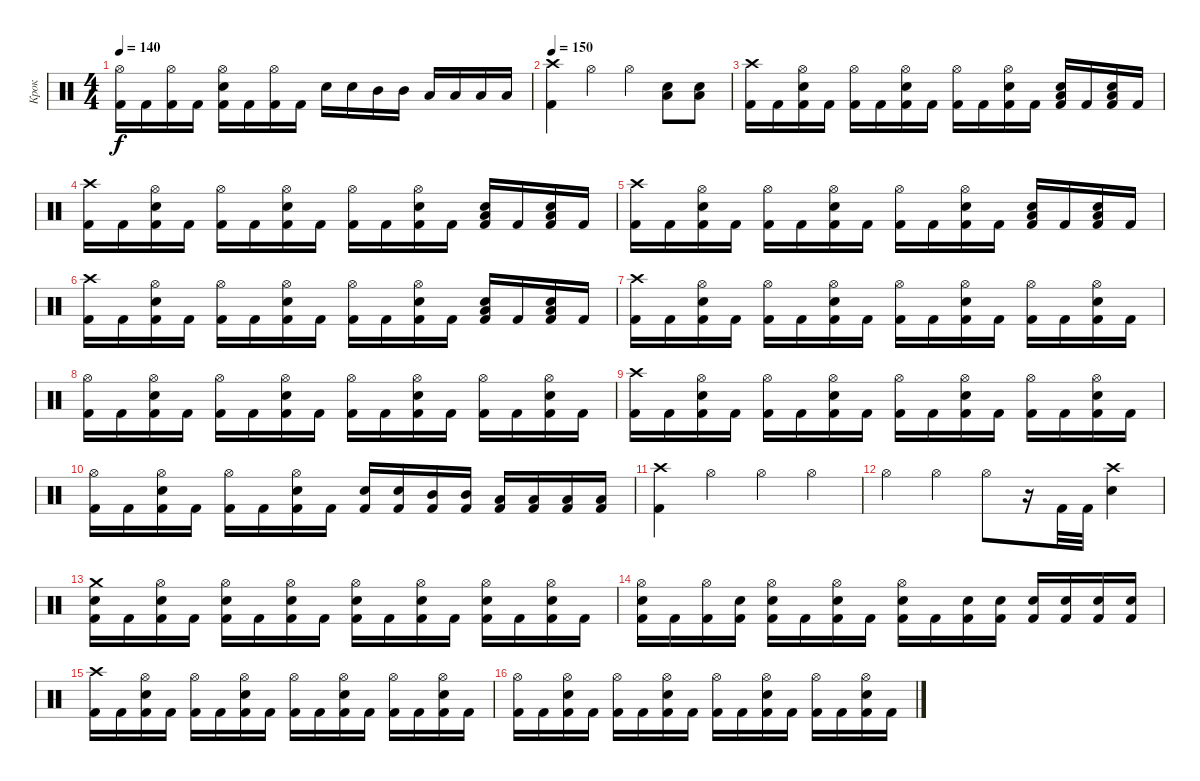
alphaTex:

\track ("Крок" "Крок") {instrument percussion}
\staff {score}
\articulation defaults
\ts (4 4)
\tempo 140
\clef neutral
\ks c
("Hi-Hat (open)" "Kick (hit) 2").16{dy f} "Kick (hit) 2".16 ("Hi-Hat (open)" "Kick (hit) 2").16 "Kick (hit) 2".16 ("Hi-Hat (open)" "Electric Snare (hit)" "Kick (hit) 2").16 "Kick (hit) 2".16 ("Hi-Hat (open)" "Kick (hit) 2").16 "Kick (hit) 2".16 "Electric Snare (hit)".16 "Electric Snare (hit)".16 "Mid Tom (hit)".16 "Mid Tom (hit)".16 "Low Tom (hit)".16 "Low Tom (hit)".16 "Low Tom (hit)".16 "Low Tom (hit)".16 |
\tempo 150
("Crash high (hit)" "Kick (hit) 2").4 "Hi-Hat (open)".4 "Hi-Hat (open)".4 ("Low Floor Tom (hit)" "Electric Snare (hit)").8 ("Low Floor Tom (hit)" "Electric Snare (hit)").8 |
("Crash high (hit)" "Kick (hit) 2").16 "Kick (hit) 2".16 ("Hi-Hat (open)" "Electric Snare (hit)" "Kick (hit) 2").16 "Kick (hit) 2".16 ("Hi-Hat (open)" "Kick (hit) 2").16 "Kick (hit) 2".16 ("Hi-Hat (open)" "Electric Snare (hit)" "Kick (hit) 2").16 "Kick (hit) 2".16 ("Hi-Hat (open)" "Kick (hit) 2").16 "Kick (hit) 2".16 ("Hi-Hat (open)" "Electric Snare (hit)" "Kick (hit) 2").16 "Kick (hit) 2".16 ("Electric Snare (hit)" "Low Floor Tom (hit)" "Kick (hit) 2").16 "Kick (hit) 2".16 ("Electric Snare (hit)" "Low Floor Tom (hit)" "Kick (hit) 2").16 "Kick (hit) 2".16 |
("Crash high (hit)" "Kick (hit) 2").16 "Kick (hit) 2".16 ("Hi-Hat (open)" "Electric Snare (hit)" "Kick (hit) 2").16 "Kick (hit) 2".16 ("Hi-Hat (open)" "Kick (hit) 2").16 "Kick (hit) 2".16 ("Hi-Hat (open)" "Electric Snare (hit)" "Kick (hit) 2").16 "Kick (hit) 2".16 ("Hi-Hat (open)" "Kick (hit) 2").16 "Kick (hit) 2".16 ("Hi-Hat (open)" "Electric Snare (hit)" "Kick (hit) 2").16 "Kick (hit) 2".16 ("Electric Snare (hit)" "Low Floor Tom (hit)" "Kick (hit) 2").16 "Kick (hit) 2".16 ("Electric Snare (hit)" "Low Floor Tom (hit)" "Kick (hit) 2").16 "Kick (hit) 2".16 |
("Crash high (hit)" "Kick (hit) 2").16 "Kick (hit) 2".16 ("Hi-Hat (open)" "Electric Snare (hit)" "Kick (hit) 2").16 "Kick (hit) 2".16 ("Hi-Hat (open)" "Kick (hit) 2").16 "Kick (hit) 2".16 ("Hi-Hat (open)" "Electric Snare (hit)" "Kick (hit) 2").16 "Kick (hit) 2".16 ("Hi-Hat (open)" "Kick (hit) 2").16 "Kick (hit) 2".16 ("Hi-Hat (open)" "Electric Snare (hit)" "Kick (hit) 2").16 "Kick (hit) 2".16 ("Electric Snare (hit)" "Low Floor Tom (hit)" "Kick (hit) 2").16 "Kick (hit) 2".16 ("Electric Snare (hit)" "Low Floor Tom (hit)" "Kick (hit) 2").16 "Kick (hit) 2".16 |
("Crash high (hit)" "Kick (hit) 2").16 "Kick (hit) 2".16 ("Hi-Hat (open)" "Electric Snare (hit)" "Kick (hit) 2").16 "Kick (hit) 2".16 ("Hi-Hat (open)" "Kick (hit) 2").16 "Kick (hit) 2".16 ("Hi-Hat (open)" "Electric Snare (hit)" "Kick (hit) 2").16 "Kick (hit) 2".16 ("Hi-Hat (open)" "Kick (hit) 2").16 "Kick (hit) 2".16 ("Hi-Hat (open)" "Electric Snare (hit)" "Kick (hit) 2").16 "Kick (hit) 2".16 ("Electric Snare (hit)" "Low Floor Tom (hit)" "Kick (hit) 2").16 "Kick (hit) 2".16 ("Electric Snare (hit)" "Low Floor Tom (hit)" "Kick (hit) 2").16 "Kick (hit) 2".16 |
("Crash high (hit)" "Kick (hit) 2").16 "Kick (hit) 2".16 ("Hi-Hat (open)" "Electric Snare (hit)" "Kick (hit) 2").16 "Kick (hit) 2".16 ("Hi-Hat (open)" "Kick (hit) 2").16 "Kick (hit) 2".16 ("Hi-Hat (open)" "Electric Snare (hit)" "Kick (hit) 2").16 "Kick (hit) 2".16 ("Hi-Hat (open)" "Kick (hit) 2").16 "Kick (hit) 2".16 ("Hi-Hat (open)" "Electric Snare (hit)" "Kick (hit) 2").16 "Kick (hit) 2".16 ("Hi-Hat (open)" "Kick (hit) 2").16 "Kick (hit) 2".16 ("Hi-Hat (open)" "Electric Snare (hit)" "Kick (hit) 2").16 "Kick (hit) 2".16 |
("Hi-Hat (open)" "Kick (hit) 2").16 "Kick (hit) 2".16 ("Hi-Hat (open)" "Electric Snare (hit)" "Kick (hit) 2").16 "Kick (hit) 2".16 ("Hi-Hat (open)" "Kick (hit) 2").16 "Kick (hit) 2".16 ("Hi-Hat (open)" "Electric Snare (hit)" "Kick (hit) 2").16 "Kick (hit) 2".16 ("Hi-Hat (open)" "Kick (hit) 2").16 "Kick (hit) 2".16 ("Hi-Hat (open)" "Electric Snare (hit)" "Kick (hit) 2").16 "Kick (hit) 2".16 ("Hi-Hat (open)" "Kick (hit) 2").16 "Kick (hit) 2".16 ("Hi-Hat (open)" "Electric Snare (hit)" "Kick (hit) 2").16 "Kick (hit) 2".16 |
("Crash high (hit)" "Kick (hit) 2").16 "Kick (hit) 2".16 ("Hi-Hat (open)" "Electric Snare (hit)" "Kick (hit) 2").16 "Kick (hit) 2".16 ("Hi-Hat (open)" "Kick (hit) 2").16 "Kick (hit) 2".16 ("Hi-Hat (open)" "Electric Snare (hit)" "Kick (hit) 2").16 "Kick (hit) 2".16 ("Hi-Hat (open)" "Kick (hit) 2").16 "Kick (hit) 2".16 ("Hi-Hat (open)" "Electric Snare (hit)" "Kick (hit) 2").16 "Kick (hit) 2".16 ("Hi-Hat (open)" "Kick (hit) 2").16 "Kick (hit) 2".16 ("Hi-Hat (open)" "Electric Snare (hit)" "Kick (hit) 2").16 "Kick (hit) 2".16 |
("Hi-Hat (open)" "Kick (hit) 2").16 "Kick (hit) 2".16 ("Hi-Hat (open)" "Electric Snare (hit)" "Kick (hit) 2").16 "Kick (hit) 2".16 ("Hi-Hat (open)" "Kick (hit) 2").16 "Kick (hit) 2".16 ("Hi-Hat (open)" "Electric Snare (hit)" "Kick (hit) 2").16 "Kick (hit) 2".16 ("Electric Snare (hit)" "Kick (hit) 2").16 ("Electric Snare (hit)" "Kick (hit) 2").16 ("Mid Tom (hit)" "Kick (hit) 2").16 ("Mid Tom (hit)" "Kick (hit) 2").16 ("Low Tom (hit)" "Kick (hit) 2").16 ("Low Tom (hit)" "Kick (hit) 2").16 ("Low Tom (hit)" "Kick (hit) 2").16 ("Low Tom (hit)" "Kick (hit) 2").16 |
("Crash high (hit)" "Kick (hit) 2").4 "Hi-Hat (open)".4 "Hi-Hat (open)".4 "Hi-Hat (open)".4 |
"Hi-Hat (open)".4 "Hi-Hat (open)".4 "Hi-Hat (open)".8 r.16 "Kick (hit) 2".32 "Kick (hit) 2".32 ("Crash high (hit)" "Electric Snare (hit)").4 |
("Crash medium (hit)" "Electric Snare (hit)" "Kick (hit) 2").16 "Kick (hit) 2".16 ("Hi-Hat (open)" "Electric Snare (hit)" "Kick (hit) 2").16 "Kick (hit) 2".16 ("Hi-Hat (open)" "Electric Snare (hit)" "Kick (hit) 2").16 "Kick (hit) 2".16 ("Hi-Hat (open)" "Electric Snare (hit)" "Kick (hit) 2").16 "Kick (hit) 2".16 ("Hi-Hat (open)" "Electric Snare (hit)" "Kick (hit) 2").16 "Kick (hit) 2".16 ("Hi-Hat (open)" "Electric Snare (hit)" "Kick (hit) 2").16 "Kick (hit) 2".16 ("Hi-Hat (open)" "Electric Snare (hit)" "Kick (hit) 2").16 "Kick (hit) 2".16 ("Hi-Hat (open)" "Electric Snare (hit)" "Kick (hit) 2").16 "Kick (hit) 2".16 |
("Hi-Hat (open)" "Electric Snare (hit)" "Kick (hit) 2").16 "Kick (hit) 2".16 ("Hi-Hat (open)" "Kick (hit) 2").16 ("Electric Snare (hit)" "Kick (hit) 2").16 ("Hi-Hat (open)" "Electric Snare (hit)" "Kick (hit) 2").16 "Kick (hit) 2".16 ("Hi-Hat (open)" "Electric Snare (hit)" "Kick (hit) 2").16 "Kick (hit) 2".16 ("Hi-Hat (open)" "Electric Snare (hit)" "Kick (hit) 2").16 "Kick (hit) 2".16 ("Electric Snare (hit)" "Kick (hit) 2").16 ("Electric Snare (hit)" "Kick (hit) 2").16 ("Electric Snare (hit)" "Kick (hit) 2").16 ("Electric Snare (hit)" "Kick (hit) 2").16 ("Electric Snare (hit)" "Kick (hit) 2").16 ("Electric Snare (hit)" "Kick (hit) 2").16 |
("Crash high (hit)" "Kick (hit) 2").16 "Kick (hit) 2".16 ("Hi-Hat (open)" "Electric Snare (hit)" "Kick (hit) 2").16 "Kick (hit) 2".16 ("Hi-Hat (open)" "Kick (hit) 2").16 "Kick (hit) 2".16 ("Hi-Hat (open)" "Electric Snare (hit)" "Kick (hit) 2").16 "Kick (hit) 2".16 ("Hi-Hat (open)" "Kick (hit) 2").16 "Kick (hit) 2".16 ("Hi-Hat (open)" "Electric Snare (hit)" "Kick (hit) 2").16 "Kick (hit) 2".16 ("Hi-Hat (open)" "Kick (hit) 2").16 "Kick (hit) 2".16 ("Hi-Hat (open)" "Electric Snare (hit)" "Kick (hit) 2").16 "Kick (hit) 2".16 |
("Hi-Hat (open)" "Kick (hit) 2").16 "Kick (hit) 2".16 ("Hi-Hat (open)" "Electric Snare (hit)" "Kick (hit) 2").16 "Kick (hit) 2".16 ("Hi-Hat (open)" "Kick (hit) 2").16 "Kick (hit) 2".16 ("Hi-Hat (open)" "Electric Snare (hit)" "Kick (hit) 2").16 "Kick (hit) 2".16 ("Hi-Hat (open)" "Kick (hit) 2").16 "Kick (hit) 2".16 ("Hi-Hat (open)" "Electric Snare (hit)" "Kick (hit) 2").16 "Kick (hit) 2".16 ("Hi-Hat (open)" "Kick (hit) 2").16 "Kick (hit) 2".16 ("Hi-Hat (open)" "Electric Snare (hit)" "Kick (hit) 2").16 "Kick (hit) 2".16
